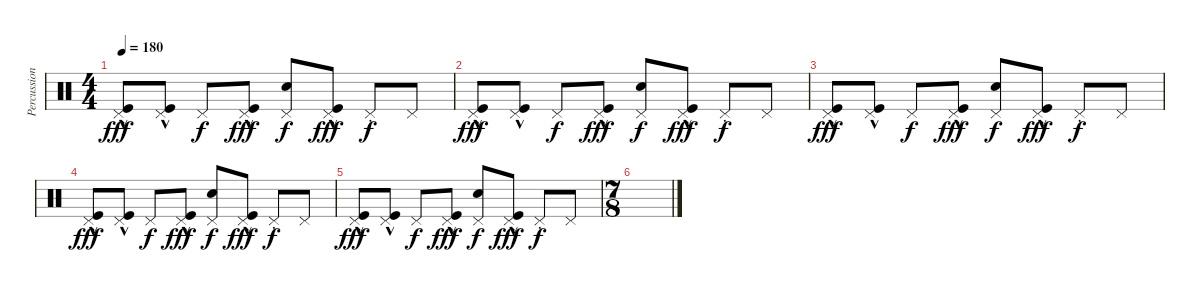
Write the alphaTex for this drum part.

\track ("Percussion" "Percussion") {instrument percussion}
\staff {score}
\articulation defaults
\ts (4 4)
\tempo 180
\clef neutral
\ks c
("Pedal Hi-Hat (hit)" "Kick (hit)"{hac}).8{dy fff} ("Pedal Hi-Hat (hit)" "Kick (hit)"{hac}).8 "Pedal Hi-Hat (hit)".8{dy f} ("Pedal Hi-Hat (hit)" "Kick (hit)"{hac}).8{dy fff} ("Pedal Hi-Hat (hit)" "Electric Snare (hit)").8{dy f} ("Pedal Hi-Hat (hit)" "Kick (hit)"{hac}).8{dy fff} "Pedal Hi-Hat (hit)"{st}.8{dy f} "Pedal Hi-Hat (hit)".8 |
("Pedal Hi-Hat (hit)" "Kick (hit)"{hac}).8{dy fff} ("Pedal Hi-Hat (hit)" "Kick (hit)"{hac}).8 "Pedal Hi-Hat (hit)".8{dy f} ("Pedal Hi-Hat (hit)" "Kick (hit)"{hac}).8{dy fff} ("Pedal Hi-Hat (hit)" "Electric Snare (hit)").8{dy f} ("Pedal Hi-Hat (hit)" "Kick (hit)"{hac}).8{dy fff} "Pedal Hi-Hat (hit)"{st}.8{dy f} "Pedal Hi-Hat (hit)".8 |
("Pedal Hi-Hat (hit)" "Kick (hit)"{hac}).8{dy fff} ("Pedal Hi-Hat (hit)" "Kick (hit)"{hac}).8 "Pedal Hi-Hat (hit)".8{dy f} ("Pedal Hi-Hat (hit)" "Kick (hit)"{hac}).8{dy fff} ("Pedal Hi-Hat (hit)" "Electric Snare (hit)").8{dy f} ("Pedal Hi-Hat (hit)" "Kick (hit)"{hac}).8{dy fff} "Pedal Hi-Hat (hit)"{st}.8{dy f} "Pedal Hi-Hat (hit)".8 |
("Pedal Hi-Hat (hit)" "Kick (hit)"{hac}).8{dy fff} ("Pedal Hi-Hat (hit)" "Kick (hit)"{hac}).8 "Pedal Hi-Hat (hit)".8{dy f} ("Pedal Hi-Hat (hit)" "Kick (hit)"{hac}).8{dy fff} ("Pedal Hi-Hat (hit)" "Electric Snare (hit)").8{dy f} ("Pedal Hi-Hat (hit)" "Kick (hit)"{hac}).8{dy fff} "Pedal Hi-Hat (hit)"{st}.8{dy f} "Pedal Hi-Hat (hit)".8 |
("Pedal Hi-Hat (hit)" "Kick (hit)"{hac}).8{dy fff} ("Pedal Hi-Hat (hit)" "Kick (hit)"{hac}).8 "Pedal Hi-Hat (hit)".8{dy f} ("Pedal Hi-Hat (hit)" "Kick (hit)"{hac}).8{dy fff} ("Pedal Hi-Hat (hit)" "Electric Snare (hit)").8{dy f} ("Pedal Hi-Hat (hit)" "Kick (hit)"{hac}).8{dy fff} "Pedal Hi-Hat (hit)"{st}.8{dy f} "Pedal Hi-Hat (hit)".8 |
\ts (7 8)
